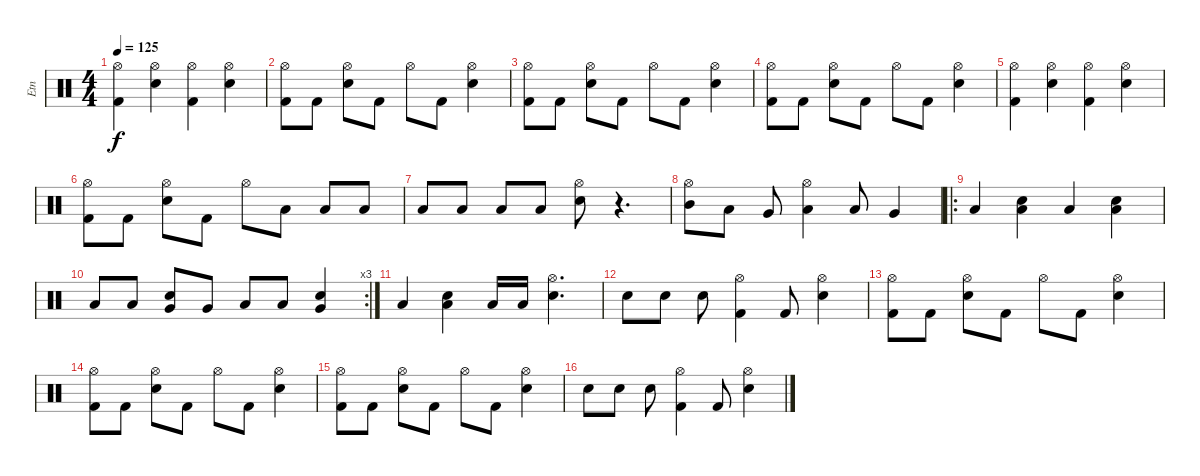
\track ("Etn" "Etn") {instrument percussion}
\staff {score}
\articulation defaults
\ts (4 4)
\tempo 125
\clef neutral
\ks c
("Hi-Hat (open)" "Kick (hit) 2").4{dy f} ("Hi-Hat (open)" "Snare (hit) 2").4 ("Hi-Hat (open)" "Kick (hit) 2").4 ("Hi-Hat (open)" "Snare (hit) 2").4 |
("Hi-Hat (open)" "Kick (hit) 2").8 "Kick (hit) 2".8 ("Hi-Hat (open)" "Snare (hit) 2").8 "Kick (hit) 2".8 "Hi-Hat (open)".8 "Kick (hit) 2".8 ("Hi-Hat (open)" "Snare (hit) 2").4 |
("Hi-Hat (open)" "Kick (hit) 2").8 "Kick (hit) 2".8 ("Hi-Hat (open)" "Snare (hit) 2").8 "Kick (hit) 2".8 "Hi-Hat (open)".8 "Kick (hit) 2".8 ("Hi-Hat (open)" "Snare (hit) 2").4 |
("Hi-Hat (open)" "Kick (hit) 2").8 "Kick (hit) 2".8 ("Hi-Hat (open)" "Snare (hit) 2").8 "Kick (hit) 2".8 "Hi-Hat (open)".8 "Kick (hit) 2".8 ("Hi-Hat (open)" "Snare (hit) 2").4 |
("Hi-Hat (open)" "Kick (hit) 2").4 ("Hi-Hat (open)" "Snare (hit) 2").4 ("Hi-Hat (open)" "Kick (hit) 2").4 ("Hi-Hat (open)" "Snare (hit) 2").4 |
("Hi-Hat (open)" "Kick (hit) 2").8 "Kick (hit) 2".8 ("Hi-Hat (open)" "Snare (hit) 2").8 "Kick (hit) 2".8 "Hi-Hat (open)".8 "Low Floor Tom (hit)".8 "Low Floor Tom (hit)".8 "Low Floor Tom (hit)".8 |
"Low Floor Tom (hit)".8 "Low Floor Tom (hit)".8 "Low Floor Tom (hit)".8 "Low Floor Tom (hit)".8 ("Hi-Hat (open)" "Snare (hit) 2").8 r.4{d} |
("Hi-Hat (open)" "Mid Tom (hit)").8 "Low Tom (hit)".8 "Very Low Tom (hit)".8 ("Hi-Hat (open)" "Low Floor Tom (hit)").4 "Low Floor Tom (hit)".8 "Very Low Tom (hit)".4 |
\ro "Low Floor Tom (hit)".4
("Low Floor Tom (hit)" "Snare (hit) 2").4 "Low Floor Tom (hit)".4 ("Low Floor Tom (hit)" "Snare (hit) 2").4 |
\rc 3 "Low Floor Tom (hit)".8 "Low Floor Tom (hit)".8
("Very Low Tom (hit)" "Snare (hit) 2").8 "Very Low Tom (hit)".8 "Low Floor Tom (hit)".8 "Low Floor Tom (hit)".8 ("Very Low Tom (hit)" "Snare (hit) 2").4 |
"Low Floor Tom (hit)".4 ("Low Floor Tom (hit)" "Snare (hit) 2").4 "Low Floor Tom (hit)".16 "Low Floor Tom (hit)".16 ("Hi-Hat (open)" "Snare (hit) 2").4{d} |
"Snare (hit) 2".8 "Snare (hit) 2".8 "Snare (hit) 2".8 ("Hi-Hat (open)" "Kick (hit) 2").4 "Kick (hit) 2".8 ("Hi-Hat (open)" "Snare (hit) 2").4 |
("Hi-Hat (open)" "Kick (hit) 2").8 "Kick (hit) 2".8 ("Hi-Hat (open)" "Snare (hit) 2").8 "Kick (hit) 2".8 "Hi-Hat (open)".8 "Kick (hit) 2".8 ("Hi-Hat (open)" "Snare (hit) 2").4 |
("Hi-Hat (open)" "Kick (hit) 2").8 "Kick (hit) 2".8 ("Hi-Hat (open)" "Snare (hit) 2").8 "Kick (hit) 2".8 "Hi-Hat (open)".8 "Kick (hit) 2".8 ("Hi-Hat (open)" "Snare (hit) 2").4 |
("Hi-Hat (open)" "Kick (hit) 2").8 "Kick (hit) 2".8 ("Hi-Hat (open)" "Snare (hit) 2").8 "Kick (hit) 2".8 "Hi-Hat (open)".8 "Kick (hit) 2".8 ("Hi-Hat (open)" "Snare (hit) 2").4 |
"Snare (hit) 2".8 "Snare (hit) 2".8 "Snare (hit) 2".8 ("Hi-Hat (open)" "Kick (hit) 2").4 "Kick (hit) 2".8 ("Hi-Hat (open)" "Snare (hit) 2").4
